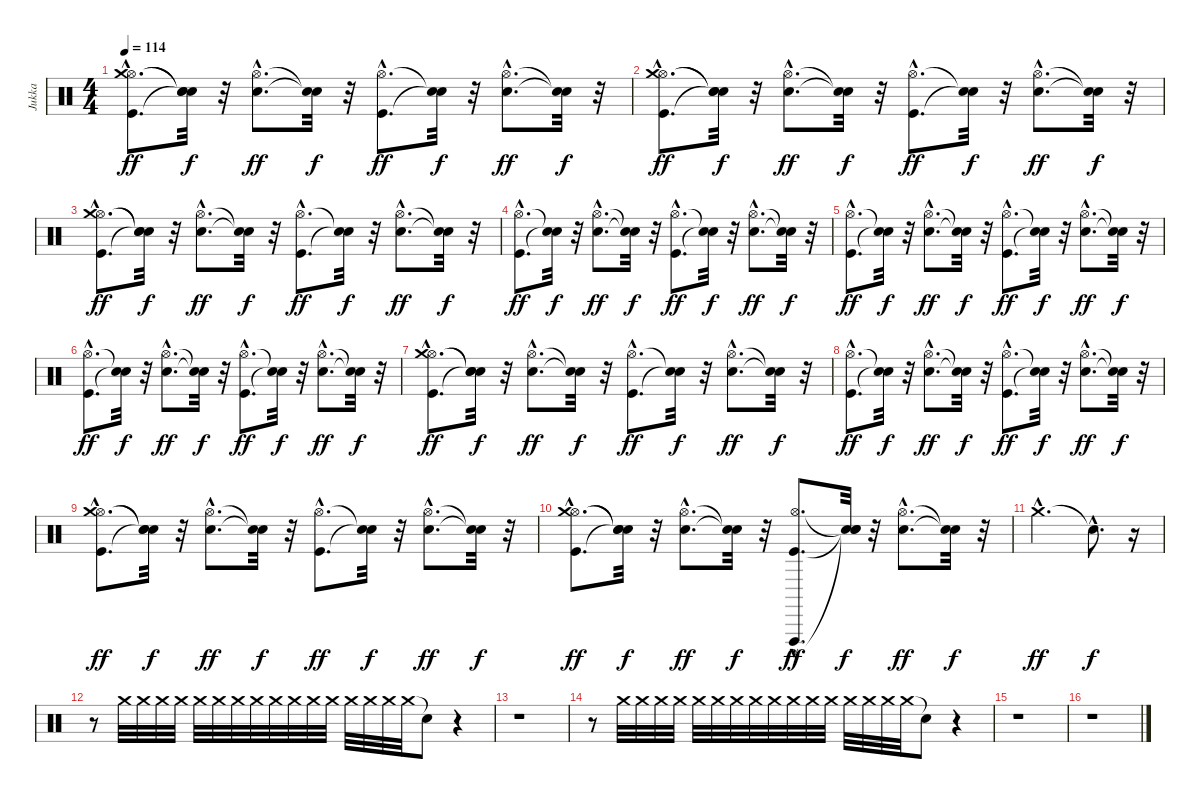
\track ("Jukka" "Jukka") {instrument percussion}
\staff {score}
\articulation defaults
\ts (4 4)
\tempo 114
\clef neutral
\ks c
("Kick (hit)"{hac} "Hi-Hat (open)"{hac} "Crash medium (hit)"{hac}).8{d dy ff} ("Snare (hit)"{t} "Snare (hit)"{t} "Snare (hit)"{t}).32{dy f} r.32 ("Electric Snare (hit)"{hac} "Hi-Hat (open)"{hac}).8{d dy ff} ("Snare (hit)"{t} "Snare (hit)"{t}).32{dy f} r.32 ("Kick (hit)"{hac} "Hi-Hat (open)"{hac}).8{d dy ff} ("Snare (hit)"{t} "Snare (hit)"{t}).32{dy f} r.32 ("Electric Snare (hit)"{hac} "Hi-Hat (open)"{hac}).8{d dy ff} ("Snare (hit)"{t} "Snare (hit)"{t}).32{dy f} r.32 |
("Kick (hit)"{hac} "Hi-Hat (open)"{hac} "Crash medium (hit)"{hac}).8{d dy ff} ("Snare (hit)"{t} "Snare (hit)"{t} "Snare (hit)"{t}).32{dy f} r.32 ("Electric Snare (hit)"{hac} "Hi-Hat (open)"{hac}).8{d dy ff} ("Snare (hit)"{t} "Snare (hit)"{t}).32{dy f} r.32 ("Kick (hit)"{hac} "Hi-Hat (open)"{hac}).8{d dy ff} ("Snare (hit)"{t} "Snare (hit)"{t}).32{dy f} r.32 ("Electric Snare (hit)"{hac} "Hi-Hat (open)"{hac}).8{d dy ff} ("Snare (hit)"{t} "Snare (hit)"{t}).32{dy f} r.32 |
("Kick (hit)"{hac} "Hi-Hat (open)"{hac} "Crash medium (hit)"{hac}).8{d dy ff} ("Snare (hit)"{t} "Snare (hit)"{t} "Snare (hit)"{t}).32{dy f} r.32 ("Electric Snare (hit)"{hac} "Hi-Hat (open)"{hac}).8{d dy ff} ("Snare (hit)"{t} "Snare (hit)"{t}).32{dy f} r.32 ("Kick (hit)"{hac} "Hi-Hat (open)"{hac}).8{d dy ff} ("Snare (hit)"{t} "Snare (hit)"{t}).32{dy f} r.32 ("Electric Snare (hit)"{hac} "Hi-Hat (open)"{hac}).8{d dy ff} ("Snare (hit)"{t} "Snare (hit)"{t}).32{dy f} r.32 |
("Kick (hit)"{hac} "Hi-Hat (open)"{hac}).8{d dy ff} ("Snare (hit)"{t} "Snare (hit)"{t}).32{dy f} r.32 ("Electric Snare (hit)"{hac} "Hi-Hat (open)"{hac}).8{d dy ff} ("Snare (hit)"{t} "Snare (hit)"{t}).32{dy f} r.32 ("Kick (hit)"{hac} "Hi-Hat (open)"{hac}).8{d dy ff} ("Snare (hit)"{t} "Snare (hit)"{t}).32{dy f} r.32 ("Electric Snare (hit)"{hac} "Hi-Hat (open)"{hac}).8{d dy ff} ("Snare (hit)"{t} "Snare (hit)"{t}).32{dy f} r.32 |
("Kick (hit)"{hac} "Hi-Hat (open)"{hac}).8{d dy ff} ("Snare (hit)"{t} "Snare (hit)"{t}).32{dy f} r.32 ("Electric Snare (hit)"{hac} "Hi-Hat (open)"{hac}).8{d dy ff} ("Snare (hit)"{t} "Snare (hit)"{t}).32{dy f} r.32 ("Kick (hit)"{hac} "Hi-Hat (open)"{hac}).8{d dy ff} ("Snare (hit)"{t} "Snare (hit)"{t}).32{dy f} r.32 ("Electric Snare (hit)"{hac} "Hi-Hat (open)"{hac}).8{d dy ff} ("Snare (hit)"{t} "Snare (hit)"{t}).32{dy f} r.32 |
("Kick (hit)"{hac} "Hi-Hat (open)"{hac}).8{d dy ff} ("Snare (hit)"{t} "Snare (hit)"{t}).32{dy f} r.32 ("Electric Snare (hit)"{hac} "Hi-Hat (open)"{hac}).8{d dy ff} ("Snare (hit)"{t} "Snare (hit)"{t}).32{dy f} r.32 ("Kick (hit)"{hac} "Hi-Hat (open)"{hac}).8{d dy ff} ("Snare (hit)"{t} "Snare (hit)"{t}).32{dy f} r.32 ("Electric Snare (hit)"{hac} "Hi-Hat (open)"{hac}).8{d dy ff} ("Snare (hit)"{t} "Snare (hit)"{t}).32{dy f} r.32 |
("Kick (hit)"{hac} "Hi-Hat (open)"{hac} "Crash medium (hit)"{hac}).8{d dy ff} ("Snare (hit)"{t} "Snare (hit)"{t} "Snare (hit)"{t}).32{dy f} r.32 ("Electric Snare (hit)"{hac} "Hi-Hat (open)"{hac}).8{d dy ff} ("Snare (hit)"{t} "Snare (hit)"{t}).32{dy f} r.32 ("Kick (hit)"{hac} "Hi-Hat (open)"{hac}).8{d dy ff} ("Snare (hit)"{t} "Snare (hit)"{t}).32{dy f} r.32 ("Electric Snare (hit)"{hac} "Hi-Hat (open)"{hac}).8{d dy ff} ("Snare (hit)"{t} "Snare (hit)"{t}).32{dy f} r.32 |
("Kick (hit)"{hac} "Hi-Hat (open)"{hac}).8{d dy ff} ("Snare (hit)"{t} "Snare (hit)"{t}).32{dy f} r.32 ("Electric Snare (hit)"{hac} "Hi-Hat (open)"{hac}).8{d dy ff} ("Snare (hit)"{t} "Snare (hit)"{t}).32{dy f} r.32 ("Kick (hit)"{hac} "Hi-Hat (open)"{hac}).8{d dy ff} ("Snare (hit)"{t} "Snare (hit)"{t}).32{dy f} r.32 ("Electric Snare (hit)"{hac} "Hi-Hat (open)"{hac}).8{d dy ff} ("Snare (hit)"{t} "Snare (hit)"{t}).32{dy f} r.32 |
("Kick (hit)"{hac} "Hi-Hat (open)"{hac} "Crash medium (hit)"{hac}).8{d dy ff} ("Snare (hit)"{t} "Snare (hit)"{t} "Snare (hit)"{t}).32{dy f} r.32 ("Electric Snare (hit)"{hac} "Hi-Hat (open)"{hac}).8{d dy ff} ("Snare (hit)"{t} "Snare (hit)"{t}).32{dy f} r.32 ("Kick (hit)"{hac} "Hi-Hat (open)"{hac}).8{d dy ff} ("Snare (hit)"{t} "Snare (hit)"{t}).32{dy f} r.32 ("Electric Snare (hit)"{hac} "Hi-Hat (open)"{hac}).8{d dy ff} ("Snare (hit)"{t} "Snare (hit)"{t}).32{dy f} r.32 |
("Kick (hit)"{hac} "Hi-Hat (open)"{hac} "Crash medium (hit)"{hac}).8{d dy ff} ("Snare (hit)"{t} "Snare (hit)"{t} "Snare (hit)"{t}).32{dy f} r.32 ("Electric Snare (hit)"{hac} "Hi-Hat (open)"{hac}).8{d dy ff} ("Snare (hit)"{t} "Snare (hit)"{t}).32{dy f} r.32 ("Kick (hit)"{hac} "Hi-Hat (open)"{hac} "Vibraslap (hit)"{hac}).8{d dy ff} ("Snare (hit)"{t} "Snare (hit)"{t} "Snare (hit)"{t}).32{dy f} r.32 ("Electric Snare (hit)"{hac} "Hi-Hat (open)"{hac}).8{d dy ff} ("Snare (hit)"{t} "Snare (hit)"{t}).32{dy f} r.32 |
"Crash medium (hit)"{hac}.2{d dy ff} "Snare (hit)"{hac t}.8{d dy f} r.16 |
r.8 "Crash medium (hit)".32{volume 2} "Crash medium (hit)".32{volume 5} "Crash medium (hit)".32{volume 7} "Crash medium (hit)".32{volume 9} "Crash medium (hit)".32{volume 5} "Crash medium (hit)".32{volume 6} "Crash medium (hit)".32{volume 7} "Crash medium (hit)".32{volume 8} "Crash medium (hit)".32{volume 9} "Crash medium (hit)".32{volume 10} "Crash medium (hit)".32{volume 11} "Crash medium (hit)".32{volume 12} "Crash medium (hit)".32{volume 13} "Crash medium (hit)".32{volume 14} "Crash medium (hit)".32{volume 15} "Crash medium (hit)".32{volume 16} "Snare (hit)"{t}.8 r.4 |
r.1 |
r.8 "Crash medium (hit)".32{volume 2} "Crash medium (hit)".32{volume 5} "Crash medium (hit)".32{volume 7} "Crash medium (hit)".32{volume 9} "Crash medium (hit)".32{volume 5} "Crash medium (hit)".32{volume 6} "Crash medium (hit)".32{volume 7} "Crash medium (hit)".32{volume 8} "Crash medium (hit)".32{volume 9} "Crash medium (hit)".32{volume 10} "Crash medium (hit)".32{volume 11} "Crash medium (hit)".32{volume 12} "Crash medium (hit)".32{volume 13} "Crash medium (hit)".32{volume 14} "Crash medium (hit)".32{volume 15} "Crash medium (hit)".32{volume 16} "Snare (hit)"{t}.8 r.4 |
r.1 |
r.1
